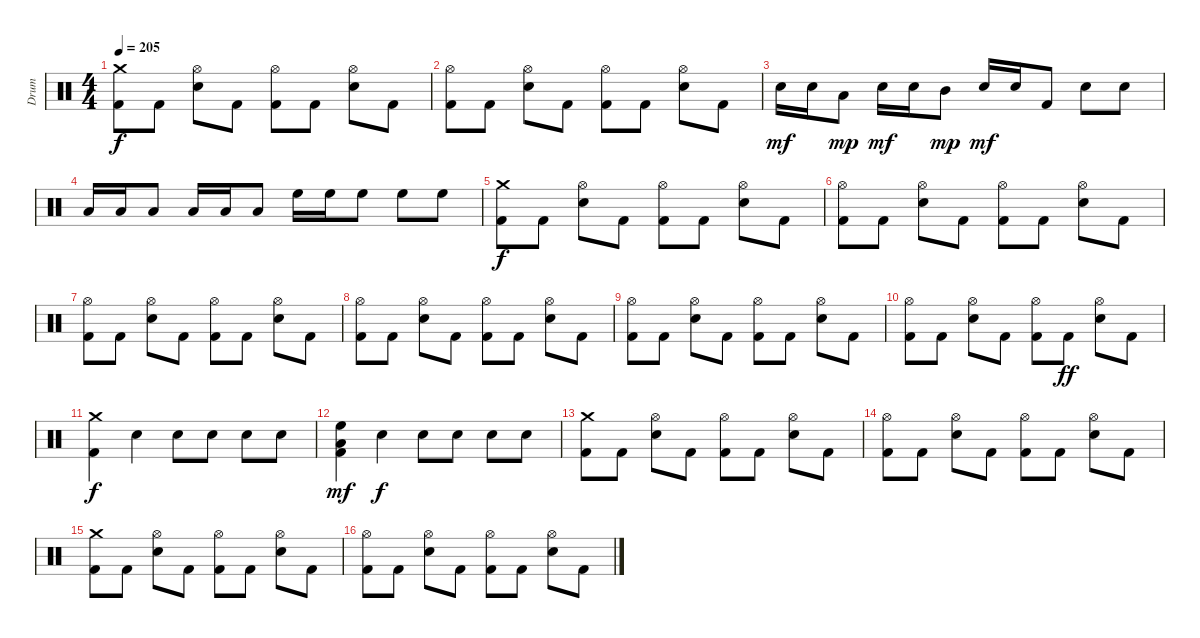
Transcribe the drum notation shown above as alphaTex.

\track ("Drum" "Drum") {instrument percussion}
\staff {score}
\articulation defaults
\ts (4 4)
\tempo 205
\clef neutral
\ks c
("Kick (hit) 2" "Crash medium (hit)").8{dy f} "Kick (hit) 2".8 ("Electric Snare (hit)" "Hi-Hat (open)").8 "Kick (hit) 2".8 ("Kick (hit) 2" "Hi-Hat (open)").8 "Kick (hit) 2".8 ("Electric Snare (hit)" "Hi-Hat (open)").8 "Kick (hit) 2".8 |
("Kick (hit) 2" "Hi-Hat (open)").8 "Kick (hit) 2".8 ("Electric Snare (hit)" "Hi-Hat (open)").8 "Kick (hit) 2".8 ("Kick (hit) 2" "Hi-Hat (open)").8 "Kick (hit) 2".8 ("Electric Snare (hit)" "Hi-Hat (open)").8 "Kick (hit) 2".8 |
"Electric Snare (hit)".16{dy mf} "Electric Snare (hit)".16 "Low Tom (hit)".8{dy mp} "Electric Snare (hit)".16{dy mf} "Electric Snare (hit)".16 "Mid Tom (hit)".8{dy mp} "Electric Snare (hit)".16{dy mf} "Electric Snare (hit)".16 "Kick (hit) 2".8 "Electric Snare (hit)".8 "Electric Snare (hit)".8 |
"Low Tom (hit)".16 "Low Tom (hit)".16 "Low Tom (hit)".8 "Low Tom (hit)".16 "Low Tom (hit)".16 "Low Tom (hit)".8 "High Floor Tom (hit)".16 "High Floor Tom (hit)".16 "High Floor Tom (hit)".8 "High Floor Tom (hit)".8 "High Floor Tom (hit)".8 |
("Kick (hit) 2" "Crash medium (hit)").8{dy f} "Kick (hit) 2".8 ("Electric Snare (hit)" "Hi-Hat (open)").8 "Kick (hit) 2".8 ("Kick (hit) 2" "Hi-Hat (open)").8 "Kick (hit) 2".8 ("Electric Snare (hit)" "Hi-Hat (open)").8 "Kick (hit) 2".8 |
("Kick (hit) 2" "Hi-Hat (open)").8 "Kick (hit) 2".8 ("Electric Snare (hit)" "Hi-Hat (open)").8 "Kick (hit) 2".8 ("Kick (hit) 2" "Hi-Hat (open)").8 "Kick (hit) 2".8 ("Electric Snare (hit)" "Hi-Hat (open)").8 "Kick (hit) 2".8 |
("Kick (hit) 2" "Hi-Hat (open)").8 "Kick (hit) 2".8 ("Electric Snare (hit)" "Hi-Hat (open)").8 "Kick (hit) 2".8 ("Kick (hit) 2" "Hi-Hat (open)").8 "Kick (hit) 2".8 ("Electric Snare (hit)" "Hi-Hat (open)").8 "Kick (hit) 2".8 |
("Kick (hit) 2" "Hi-Hat (open)").8 "Kick (hit) 2".8 ("Electric Snare (hit)" "Hi-Hat (open)").8 "Kick (hit) 2".8 ("Kick (hit) 2" "Hi-Hat (open)").8 "Kick (hit) 2".8 ("Electric Snare (hit)" "Hi-Hat (open)").8 "Kick (hit) 2".8 |
("Kick (hit) 2" "Hi-Hat (open)").8 "Kick (hit) 2".8 ("Electric Snare (hit)" "Hi-Hat (open)").8 "Kick (hit) 2".8 ("Kick (hit) 2" "Hi-Hat (open)").8 "Kick (hit) 2".8 ("Electric Snare (hit)" "Hi-Hat (open)").8 "Kick (hit) 2".8 |
("Kick (hit) 2" "Hi-Hat (open)").8 "Kick (hit) 2".8 ("Electric Snare (hit)" "Hi-Hat (open)").8 "Kick (hit) 2".8 ("Kick (hit) 2" "Hi-Hat (open)").8 "Kick (hit) 2".8{dy ff} ("Electric Snare (hit)" "Hi-Hat (open)").8 "Kick (hit) 2".8 |
("Kick (hit) 2" "Crash medium (hit)").4{dy f} "Electric Snare (hit)".4 "Electric Snare (hit)".8 "Electric Snare (hit)".8 "Electric Snare (hit)".8 "Electric Snare (hit)".8 |
("Kick (hit) 2" "Low Tom (hit)" "High Floor Tom (hit)").4{dy mf} "Electric Snare (hit)".4{dy f} "Electric Snare (hit)".8 "Electric Snare (hit)".8 "Electric Snare (hit)".8 "Electric Snare (hit)".8 |
("Kick (hit) 2" "Crash medium (hit)").8 "Kick (hit) 2".8 ("Electric Snare (hit)" "Hi-Hat (open)").8 "Kick (hit) 2".8 ("Kick (hit) 2" "Hi-Hat (open)").8 "Kick (hit) 2".8 ("Electric Snare (hit)" "Hi-Hat (open)").8 "Kick (hit) 2".8 |
("Kick (hit) 2" "Hi-Hat (open)").8 "Kick (hit) 2".8 ("Electric Snare (hit)" "Hi-Hat (open)").8 "Kick (hit) 2".8 ("Kick (hit) 2" "Hi-Hat (open)").8 "Kick (hit) 2".8 ("Electric Snare (hit)" "Hi-Hat (open)").8 "Kick (hit) 2".8 |
("Kick (hit) 2" "Crash medium (hit)").8 "Kick (hit) 2".8 ("Electric Snare (hit)" "Hi-Hat (open)").8 "Kick (hit) 2".8 ("Kick (hit) 2" "Hi-Hat (open)").8 "Kick (hit) 2".8 ("Electric Snare (hit)" "Hi-Hat (open)").8 "Kick (hit) 2".8 |
("Kick (hit) 2" "Hi-Hat (open)").8 "Kick (hit) 2".8 ("Electric Snare (hit)" "Hi-Hat (open)").8 "Kick (hit) 2".8 ("Kick (hit) 2" "Hi-Hat (open)").8 "Kick (hit) 2".8 ("Electric Snare (hit)" "Hi-Hat (open)").8 "Kick (hit) 2".8
